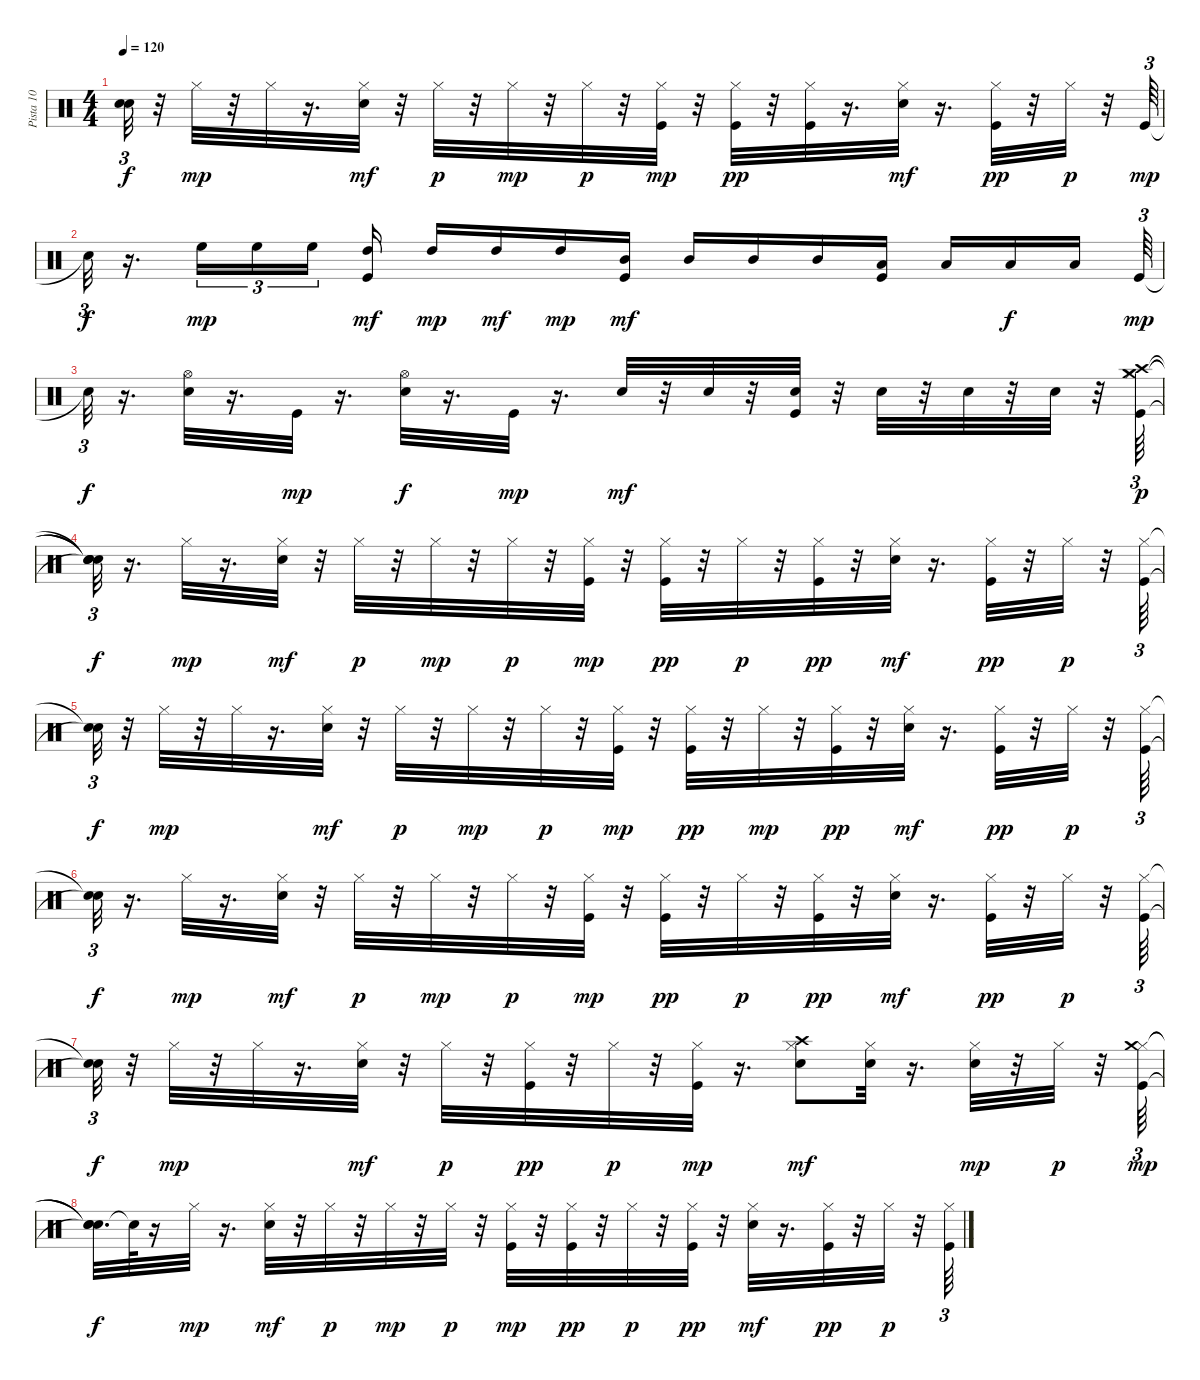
\track ("Pista 10" "Pista 10") {instrument percussion}
\staff {score}
\articulation defaults
\ts (4 4)
\tempo 120
\clef neutral
\ks c
("Snare (hit)"{t} "Snare (hit)"{t}).32{tu (3 2) dy f} r.32 "Hi-Hat (closed)".32{dy mp} r.32 "Hi-Hat (closed)".32 r.16{d} ("Hi-Hat (closed)" "Snare (hit) 2").32{dy mf} r.32 "Hi-Hat (closed)".32{dy p} r.32 "Hi-Hat (closed)".32{dy mp} r.32 "Hi-Hat (closed)".32{dy p} r.32 ("Kick (hit)" "Hi-Hat (closed)").32{dy mp} r.32 ("Hi-Hat (closed)" "Kick (hit)").32{dy pp} r.32 ("Hi-Hat (closed)" "Kick (hit)").32 r.16{d} ("Hi-Hat (closed)" "Snare (hit) 2").32{dy mf} r.16{d} ("Hi-Hat (closed)" "Kick (hit)").32{dy pp} r.32 "Hi-Hat (closed)".32{dy p} r.32 "Kick (hit)".64{tu (3 2) dy mp} |
"Snare (hit)"{t}.32{tu (3 2) dy f} r.16{d} "High Floor Tom (hit)".16{tu (3 2) dy mp} "High Floor Tom (hit)".16{tu (3 2)} "High Floor Tom (hit)".16{tu (3 2) beam splitsecondary} ("Kick (hit)" "High Tom (hit)").16{dy mf} "High Tom (hit)".16{dy mp} "High Tom (hit)".16{dy mf} "High Tom (hit)".16{dy mp} ("Kick (hit)" "Mid Tom (hit)").16{dy mf} "Mid Tom (hit)".16 "Mid Tom (hit)".16 "Mid Tom (hit)".16 ("Kick (hit)" "Low Tom (hit)").16 "Low Tom (hit)".16 "Low Tom (hit)".16{dy f} "Low Tom (hit)".16{beam splitsecondary} "Kick (hit)".64{tu (3 2) dy mp} |
"Snare (hit)"{t}.32{tu (3 2) dy f} r.16{d} ("Hi-Hat (open)" "Snare (hit) 2").32 r.16{d} "Kick (hit)".32{dy mp} r.16{d} ("Hi-Hat (open)" "Snare (hit) 2").32{dy f} r.16{d} "Kick (hit)".32{dy mp} r.16{d} "Snare (hit) 2".32{dy mf} r.32 "Snare (hit) 2".32 r.32 ("Kick (hit)" "Snare (hit) 2").32 r.32 "Snare (hit) 2".32 r.32 "Snare (hit) 2".32 r.32 "Snare (hit) 2".32 r.32 ("Kick (hit)" "Hi-Hat (closed)" "Crash high (hit)" "Crash medium (hit)").64{tu (3 2) dy p} |
("Snare (hit)"{t} "Snare (hit)"{t} "Snare (hit)"{t} "Snare (hit)"{t}).32{tu (3 2) dy f} r.16{d} "Hi-Hat (closed)".32{dy mp} r.16{d} ("Hi-Hat (closed)" "Snare (hit) 2").32{dy mf} r.32 "Hi-Hat (closed)".32{dy p} r.32 "Hi-Hat (closed)".32{dy mp} r.32 "Hi-Hat (closed)".32{dy p} r.32 ("Kick (hit)" "Hi-Hat (closed)").32{dy mp} r.32 ("Kick (hit)" "Hi-Hat (closed)").32{dy pp} r.32 "Hi-Hat (closed)".32{dy p} r.32 ("Kick (hit)" "Hi-Hat (closed)").32{dy pp} r.32 ("Hi-Hat (closed)" "Snare (hit) 2").32{dy mf} r.16{d} ("Hi-Hat (closed)" "Kick (hit)").32{dy pp} r.32 "Hi-Hat (closed)".32{dy p} r.32 ("Kick (hit)" "Hi-Hat (closed)").64{tu (3 2)} |
("Snare (hit)"{t} "Snare (hit)"{t}).32{tu (3 2) dy f} r.32 "Hi-Hat (closed)".32{dy mp} r.32 "Hi-Hat (closed)".32 r.16{d} ("Hi-Hat (closed)" "Snare (hit) 2").32{dy mf} r.32 "Hi-Hat (closed)".32{dy p} r.32 "Hi-Hat (closed)".32{dy mp} r.32 "Hi-Hat (closed)".32{dy p} r.32 ("Kick (hit)" "Hi-Hat (closed)").32{dy mp} r.32 ("Kick (hit)" "Hi-Hat (closed)").32{dy pp} r.32 "Hi-Hat (closed)".32{dy mp} r.32 ("Kick (hit)" "Hi-Hat (closed)").32{dy pp} r.32 ("Hi-Hat (closed)" "Snare (hit) 2").32{dy mf} r.16{d} ("Hi-Hat (closed)" "Kick (hit)").32{dy pp} r.32 "Hi-Hat (closed)".32{dy p} r.32 ("Kick (hit)" "Hi-Hat (closed)").64{tu (3 2)} |
("Snare (hit)"{t} "Snare (hit)"{t}).32{tu (3 2) dy f} r.16{d} "Hi-Hat (closed)".32{dy mp} r.16{d} ("Hi-Hat (closed)" "Snare (hit) 2").32{dy mf} r.32 "Hi-Hat (closed)".32{dy p} r.32 "Hi-Hat (closed)".32{dy mp} r.32 "Hi-Hat (closed)".32{dy p} r.32 ("Kick (hit)" "Hi-Hat (closed)").32{dy mp} r.32 ("Hi-Hat (closed)" "Kick (hit)").32{dy pp} r.32 "Hi-Hat (closed)".32{dy p} r.32 ("Hi-Hat (closed)" "Kick (hit)").32{dy pp} r.32 ("Hi-Hat (closed)" "Snare (hit) 2").32{dy mf} r.16{d} ("Hi-Hat (closed)" "Kick (hit)").32{dy pp} r.32 "Hi-Hat (closed)".32{dy p} r.32 ("Kick (hit)" "Hi-Hat (closed)").64{tu (3 2)} |
("Snare (hit)"{t} "Snare (hit)"{t}).32{tu (3 2) dy f} r.32 "Hi-Hat (closed)".32{dy mp} r.32 "Hi-Hat (closed)".32 r.16{d} ("Hi-Hat (closed)" "Snare (hit) 2").32{dy mf} r.32 "Hi-Hat (closed)".32{dy p} r.32 ("Hi-Hat (closed)" "Kick (hit)").32{dy pp} r.32 "Hi-Hat (closed)".32{dy p} r.32 ("Kick (hit)" "Hi-Hat (closed)").32{dy mp} r.16{d} ("Hi-Hat (closed)" "Crash high (hit)" "Snare (hit) 2").8{dy mf} ("Hi-Hat (closed)" "Snare (hit) 2").32 r.16{d} ("Hi-Hat (closed)" "Snare (hit) 2").32{dy mp} r.32 "Hi-Hat (closed)".32{dy p} r.32 ("Kick (hit)" "Hi-Hat (closed)" "Crash medium (hit)").64{tu (3 2) dy mp} |
("Snare (hit)"{t} "Snare (hit)"{t} "Snare (hit)"{t}).32{d dy f} "Snare (hit)"{t}.64 r.16 "Hi-Hat (closed)".32{dy mp} r.16{d} ("Hi-Hat (closed)" "Snare (hit) 2").32{dy mf} r.32 "Hi-Hat (closed)".32{dy p} r.32 "Hi-Hat (closed)".32{dy mp} r.32 "Hi-Hat (closed)".32{dy p} r.32 ("Kick (hit)" "Hi-Hat (closed)").32{dy mp} r.32 ("Hi-Hat (closed)" "Kick (hit)").32{dy pp} r.32 "Hi-Hat (closed)".32{dy p} r.32 ("Hi-Hat (closed)" "Kick (hit)").32{dy pp} r.32 ("Hi-Hat (closed)" "Snare (hit) 2").32{dy mf} r.16{d} ("Hi-Hat (closed)" "Kick (hit)").32{dy pp} r.32 "Hi-Hat (closed)".32{dy p} r.32 ("Kick (hit)" "Hi-Hat (closed)").64{tu (3 2)}
